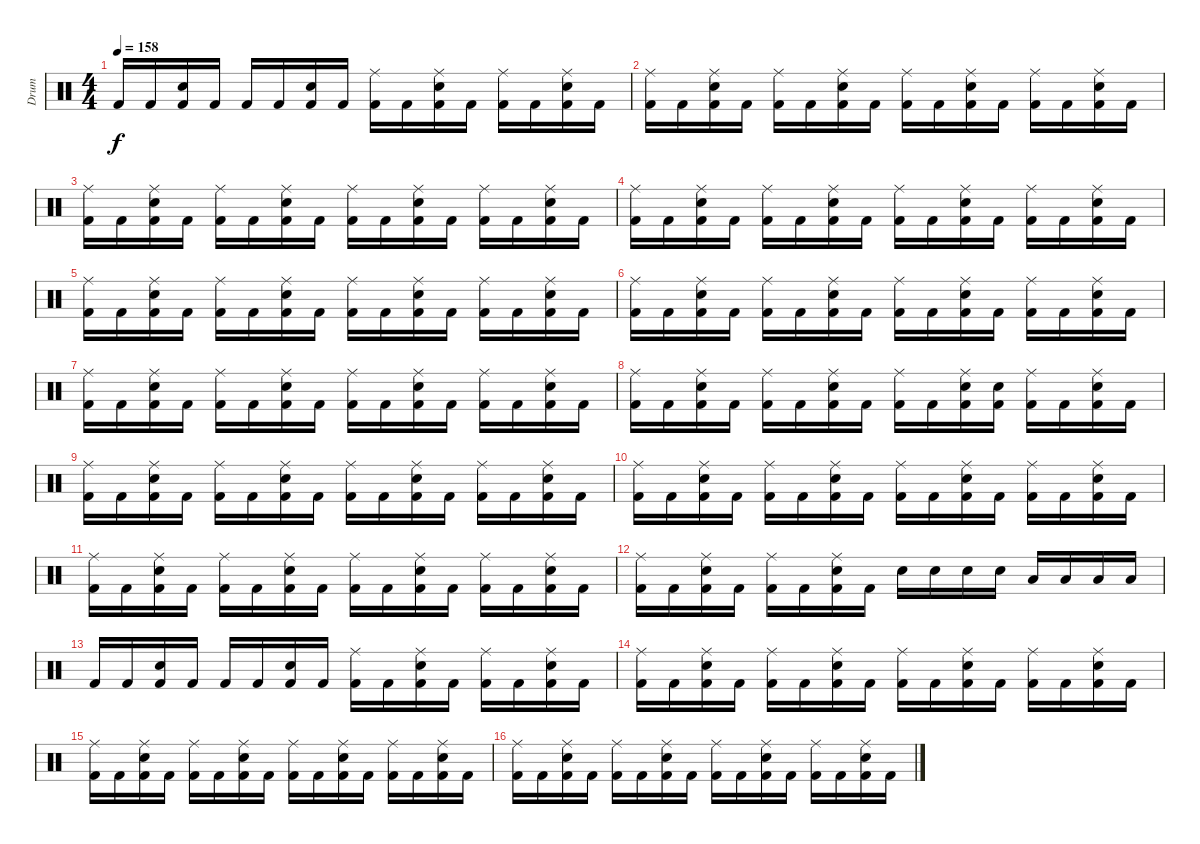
\track ("Drum" "Drum") {instrument percussion}
\staff {score}
\articulation defaults
\ts (4 4)
\tempo 158
\clef neutral
\ks c "Kick (hit) 2".16{dy f} "Kick (hit) 2".16
("Electric Snare (hit)" "Kick (hit) 2").16 "Kick (hit) 2".16 "Kick (hit) 2".16 "Kick (hit) 2".16 ("Electric Snare (hit)" "Kick (hit) 2").16 "Kick (hit) 2".16 ("Kick (hit) 2" "Ride (middle)").16 "Kick (hit) 2".16 ("Electric Snare (hit)" "Kick (hit) 2" "Ride (middle)").16 "Kick (hit) 2".16 ("Kick (hit) 2" "Ride (middle)").16 "Kick (hit) 2".16 ("Electric Snare (hit)" "Kick (hit) 2" "Ride (middle)").16 "Kick (hit) 2".16 |
("Kick (hit) 2" "Ride (middle)").16 "Kick (hit) 2".16 ("Electric Snare (hit)" "Kick (hit) 2" "Ride (middle)").16 "Kick (hit) 2".16 ("Kick (hit) 2" "Ride (middle)").16 "Kick (hit) 2".16 ("Electric Snare (hit)" "Kick (hit) 2" "Ride (middle)").16 "Kick (hit) 2".16 ("Kick (hit) 2" "Ride (middle)").16 "Kick (hit) 2".16 ("Electric Snare (hit)" "Kick (hit) 2" "Ride (middle)").16 "Kick (hit) 2".16 ("Kick (hit) 2" "Ride (middle)").16 "Kick (hit) 2".16 ("Electric Snare (hit)" "Kick (hit) 2" "Ride (middle)").16 "Kick (hit) 2".16 |
("Kick (hit) 2" "Ride (middle)").16 "Kick (hit) 2".16 ("Electric Snare (hit)" "Kick (hit) 2" "Ride (middle)").16 "Kick (hit) 2".16 ("Kick (hit) 2" "Ride (middle)").16 "Kick (hit) 2".16 ("Electric Snare (hit)" "Kick (hit) 2" "Ride (middle)").16 "Kick (hit) 2".16 ("Kick (hit) 2" "Ride (middle)").16 "Kick (hit) 2".16 ("Electric Snare (hit)" "Kick (hit) 2" "Ride (middle)").16 "Kick (hit) 2".16 ("Kick (hit) 2" "Ride (middle)").16 "Kick (hit) 2".16 ("Electric Snare (hit)" "Kick (hit) 2" "Ride (middle)").16 "Kick (hit) 2".16 |
("Kick (hit) 2" "Ride (middle)").16 "Kick (hit) 2".16 ("Electric Snare (hit)" "Kick (hit) 2" "Ride (middle)").16 "Kick (hit) 2".16 ("Kick (hit) 2" "Ride (middle)").16 "Kick (hit) 2".16 ("Electric Snare (hit)" "Kick (hit) 2" "Ride (middle)").16 "Kick (hit) 2".16 ("Kick (hit) 2" "Ride (middle)").16 "Kick (hit) 2".16 ("Electric Snare (hit)" "Kick (hit) 2" "Ride (middle)").16 "Kick (hit) 2".16 ("Kick (hit) 2" "Ride (middle)").16 "Kick (hit) 2".16 ("Electric Snare (hit)" "Kick (hit) 2" "Ride (middle)").16 "Kick (hit) 2".16 |
("Kick (hit) 2" "Ride (middle)").16 "Kick (hit) 2".16 ("Electric Snare (hit)" "Kick (hit) 2" "Ride (middle)").16 "Kick (hit) 2".16 ("Kick (hit) 2" "Ride (middle)").16 "Kick (hit) 2".16 ("Electric Snare (hit)" "Kick (hit) 2" "Ride (middle)").16 "Kick (hit) 2".16 ("Kick (hit) 2" "Ride (middle)").16 "Kick (hit) 2".16 ("Electric Snare (hit)" "Kick (hit) 2" "Ride (middle)").16 "Kick (hit) 2".16 ("Kick (hit) 2" "Ride (middle)").16 "Kick (hit) 2".16 ("Electric Snare (hit)" "Kick (hit) 2" "Ride (middle)").16 "Kick (hit) 2".16 |
("Kick (hit) 2" "Ride (middle)").16 "Kick (hit) 2".16 ("Electric Snare (hit)" "Kick (hit) 2" "Ride (middle)").16 "Kick (hit) 2".16 ("Kick (hit) 2" "Ride (middle)").16 "Kick (hit) 2".16 ("Electric Snare (hit)" "Kick (hit) 2" "Ride (middle)").16 "Kick (hit) 2".16 ("Kick (hit) 2" "Ride (middle)").16 "Kick (hit) 2".16 ("Electric Snare (hit)" "Kick (hit) 2" "Ride (middle)").16 "Kick (hit) 2".16 ("Kick (hit) 2" "Ride (middle)").16 "Kick (hit) 2".16 ("Electric Snare (hit)" "Kick (hit) 2" "Ride (middle)").16 "Kick (hit) 2".16 |
("Kick (hit) 2" "Ride (middle)").16 "Kick (hit) 2".16 ("Electric Snare (hit)" "Kick (hit) 2" "Ride (middle)").16 "Kick (hit) 2".16 ("Kick (hit) 2" "Ride (middle)").16 "Kick (hit) 2".16 ("Electric Snare (hit)" "Kick (hit) 2" "Ride (middle)").16 "Kick (hit) 2".16 ("Kick (hit) 2" "Ride (middle)").16 "Kick (hit) 2".16 ("Electric Snare (hit)" "Kick (hit) 2" "Ride (middle)").16 "Kick (hit) 2".16 ("Kick (hit) 2" "Ride (middle)").16 "Kick (hit) 2".16 ("Electric Snare (hit)" "Kick (hit) 2" "Ride (middle)").16 "Kick (hit) 2".16 |
("Kick (hit) 2" "Ride (middle)").16 "Kick (hit) 2".16 ("Electric Snare (hit)" "Kick (hit) 2" "Ride (middle)").16 "Kick (hit) 2".16 ("Kick (hit) 2" "Ride (middle)").16 "Kick (hit) 2".16 ("Electric Snare (hit)" "Kick (hit) 2" "Ride (middle)").16 "Kick (hit) 2".16 ("Kick (hit) 2" "Ride (middle)").16 "Kick (hit) 2".16 ("Electric Snare (hit)" "Kick (hit) 2" "Ride (middle)").16 ("Electric Snare (hit)" "Kick (hit) 2").16 ("Kick (hit) 2" "Ride (middle)").16 "Kick (hit) 2".16 ("Electric Snare (hit)" "Kick (hit) 2" "Ride (middle)").16 "Kick (hit) 2".16 |
("Kick (hit) 2" "Ride (middle)").16 "Kick (hit) 2".16 ("Electric Snare (hit)" "Kick (hit) 2" "Ride (middle)").16 "Kick (hit) 2".16 ("Kick (hit) 2" "Ride (middle)").16 "Kick (hit) 2".16 ("Electric Snare (hit)" "Kick (hit) 2" "Ride (middle)").16 "Kick (hit) 2".16 ("Kick (hit) 2" "Ride (middle)").16 "Kick (hit) 2".16 ("Electric Snare (hit)" "Kick (hit) 2" "Ride (middle)").16 "Kick (hit) 2".16 ("Kick (hit) 2" "Ride (middle)").16 "Kick (hit) 2".16 ("Electric Snare (hit)" "Kick (hit) 2" "Ride (middle)").16 "Kick (hit) 2".16 |
("Kick (hit) 2" "Ride (middle)").16 "Kick (hit) 2".16 ("Electric Snare (hit)" "Kick (hit) 2" "Ride (middle)").16 "Kick (hit) 2".16 ("Kick (hit) 2" "Ride (middle)").16 "Kick (hit) 2".16 ("Electric Snare (hit)" "Kick (hit) 2" "Ride (middle)").16 "Kick (hit) 2".16 ("Kick (hit) 2" "Ride (middle)").16 "Kick (hit) 2".16 ("Electric Snare (hit)" "Kick (hit) 2" "Ride (middle)").16 "Kick (hit) 2".16 ("Kick (hit) 2" "Ride (middle)").16 "Kick (hit) 2".16 ("Electric Snare (hit)" "Kick (hit) 2" "Ride (middle)").16 "Kick (hit) 2".16 |
("Kick (hit) 2" "Ride (middle)").16 "Kick (hit) 2".16 ("Electric Snare (hit)" "Kick (hit) 2" "Ride (middle)").16 "Kick (hit) 2".16 ("Kick (hit) 2" "Ride (middle)").16 "Kick (hit) 2".16 ("Electric Snare (hit)" "Kick (hit) 2" "Ride (middle)").16 "Kick (hit) 2".16 ("Kick (hit) 2" "Ride (middle)").16 "Kick (hit) 2".16 ("Electric Snare (hit)" "Kick (hit) 2" "Ride (middle)").16 "Kick (hit) 2".16 ("Kick (hit) 2" "Ride (middle)").16 "Kick (hit) 2".16 ("Electric Snare (hit)" "Kick (hit) 2" "Ride (middle)").16 "Kick (hit) 2".16 |
("Kick (hit) 2" "Ride (middle)").16 "Kick (hit) 2".16 ("Electric Snare (hit)" "Kick (hit) 2" "Ride (middle)").16 "Kick (hit) 2".16 ("Kick (hit) 2" "Ride (middle)").16 "Kick (hit) 2".16 ("Electric Snare (hit)" "Kick (hit) 2" "Ride (middle)").16 "Kick (hit) 2".16 "Electric Snare (hit)".16 "Electric Snare (hit)".16 "Electric Snare (hit)".16 "Electric Snare (hit)".16 "Low Floor Tom (hit)".16 "Low Floor Tom (hit)".16 "Low Floor Tom (hit)".16 "Low Floor Tom (hit)".16 |
"Kick (hit) 2".16 "Kick (hit) 2".16 ("Electric Snare (hit)" "Kick (hit) 2").16 "Kick (hit) 2".16 "Kick (hit) 2".16 "Kick (hit) 2".16 ("Electric Snare (hit)" "Kick (hit) 2").16 "Kick (hit) 2".16 ("Kick (hit) 2" "Ride (middle)").16 "Kick (hit) 2".16 ("Electric Snare (hit)" "Kick (hit) 2" "Ride (middle)").16 "Kick (hit) 2".16 ("Kick (hit) 2" "Ride (middle)").16 "Kick (hit) 2".16 ("Electric Snare (hit)" "Kick (hit) 2" "Ride (middle)").16 "Kick (hit) 2".16 |
("Kick (hit) 2" "Ride (middle)").16 "Kick (hit) 2".16 ("Electric Snare (hit)" "Kick (hit) 2" "Ride (middle)").16 "Kick (hit) 2".16 ("Kick (hit) 2" "Ride (middle)").16 "Kick (hit) 2".16 ("Electric Snare (hit)" "Kick (hit) 2" "Ride (middle)").16 "Kick (hit) 2".16 ("Kick (hit) 2" "Ride (middle)").16 "Kick (hit) 2".16 ("Electric Snare (hit)" "Kick (hit) 2" "Ride (middle)").16 "Kick (hit) 2".16 ("Kick (hit) 2" "Ride (middle)").16 "Kick (hit) 2".16 ("Electric Snare (hit)" "Kick (hit) 2" "Ride (middle)").16 "Kick (hit) 2".16 |
("Kick (hit) 2" "Ride (middle)").16 "Kick (hit) 2".16 ("Electric Snare (hit)" "Kick (hit) 2" "Ride (middle)").16 "Kick (hit) 2".16 ("Kick (hit) 2" "Ride (middle)").16 "Kick (hit) 2".16 ("Electric Snare (hit)" "Kick (hit) 2" "Ride (middle)").16 "Kick (hit) 2".16 ("Kick (hit) 2" "Ride (middle)").16 "Kick (hit) 2".16 ("Electric Snare (hit)" "Kick (hit) 2" "Ride (middle)").16 "Kick (hit) 2".16 ("Kick (hit) 2" "Ride (middle)").16 "Kick (hit) 2".16 ("Electric Snare (hit)" "Kick (hit) 2" "Ride (middle)").16 "Kick (hit) 2".16 |
("Kick (hit) 2" "Ride (middle)").16 "Kick (hit) 2".16 ("Electric Snare (hit)" "Kick (hit) 2" "Ride (middle)").16 "Kick (hit) 2".16 ("Kick (hit) 2" "Ride (middle)").16 "Kick (hit) 2".16 ("Electric Snare (hit)" "Kick (hit) 2" "Ride (middle)").16 "Kick (hit) 2".16 ("Kick (hit) 2" "Ride (middle)").16 "Kick (hit) 2".16 ("Electric Snare (hit)" "Kick (hit) 2" "Ride (middle)").16 "Kick (hit) 2".16 ("Kick (hit) 2" "Ride (middle)").16 "Kick (hit) 2".16 ("Electric Snare (hit)" "Kick (hit) 2" "Ride (middle)").16 "Kick (hit) 2".16
